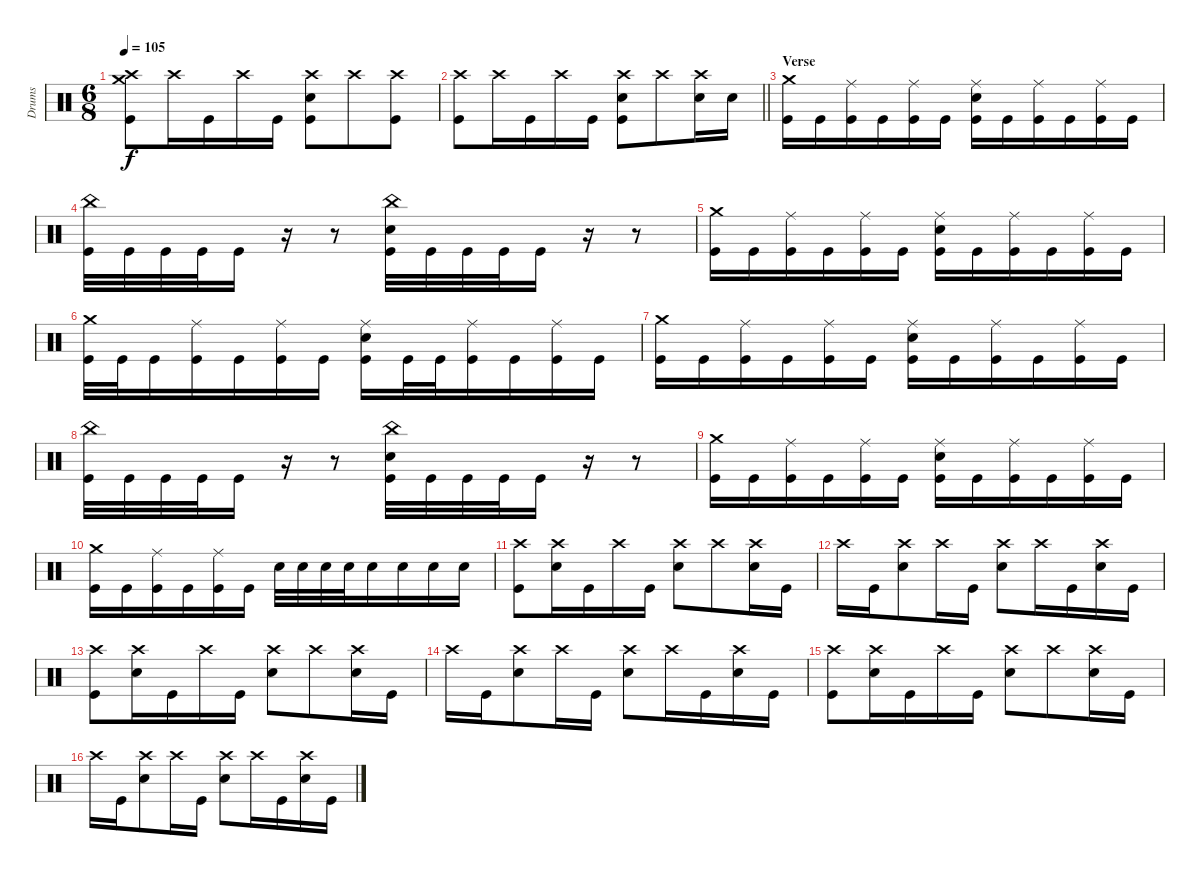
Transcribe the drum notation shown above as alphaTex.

\track ("Drums" "Drums") {instrument percussion}
\staff {score}
\articulation defaults
\ts (6 8)
\tempo 105
\clef neutral
\ks c
("Crash medium (hit)" "Crash high (hit)" "Kick (hit)").8{dy f} "Crash high (hit)".16 "Kick (hit)".16 "Crash high (hit)".16 "Kick (hit)".16 ("Crash high (hit)" "Electric Snare (hit)" "Kick (hit)").8 "Crash high (hit)".8 ("Crash high (hit)" "Kick (hit)").8 |
\barLineRight lightlight
("Crash high (hit)" "Kick (hit)").8 "Crash high (hit)".16 "Kick (hit)".16 "Crash high (hit)".16 "Kick (hit)".16 ("Crash high (hit)" "Electric Snare (hit)" "Kick (hit)").8 "Crash high (hit)".8 ("Crash high (hit)" "Electric Snare (hit)").16 "Electric Snare (hit)".16 |
\section ("" "Verse")
("Crash medium (hit)" "Kick (hit)").16 "Kick (hit)".16 ("Ride (middle)" "Kick (hit)").16 "Kick (hit)".16 ("Ride (middle)" "Kick (hit)").16 "Kick (hit)".16 ("Ride (middle)" "Electric Snare (hit)" "Kick (hit)").16 "Kick (hit)".16 ("Ride (middle)" "Kick (hit)").16 "Kick (hit)".16 ("Ride (middle)" "Kick (hit)").16 "Kick (hit)".16 |
("China (hit)" "Kick (hit)").32 "Kick (hit)".32 "Kick (hit)".32 "Kick (hit)".32 "Kick (hit)".16 r.16 r.8 ("China (hit)" "Electric Snare (hit)" "Kick (hit)").32 "Kick (hit)".32 "Kick (hit)".32 "Kick (hit)".32 "Kick (hit)".16 r.16 r.8 |
("Crash medium (hit)" "Kick (hit)").16 "Kick (hit)".16 ("Ride (middle)" "Kick (hit)").16 "Kick (hit)".16 ("Ride (middle)" "Kick (hit)").16 "Kick (hit)".16 ("Ride (middle)" "Electric Snare (hit)" "Kick (hit)").16 "Kick (hit)".16 ("Ride (middle)" "Kick (hit)").16 "Kick (hit)".16 ("Ride (middle)" "Kick (hit)").16 "Kick (hit)".16 |
("Crash medium (hit)" "Kick (hit)").32 "Kick (hit)".32 "Kick (hit)".16 ("Ride (middle)" "Kick (hit)").16 "Kick (hit)".16 ("Ride (middle)" "Kick (hit)").16 "Kick (hit)".16 ("Ride (middle)" "Electric Snare (hit)" "Kick (hit)").16 "Kick (hit)".32 "Kick (hit)".32 ("Ride (middle)" "Kick (hit)").16 "Kick (hit)".16 ("Ride (middle)" "Kick (hit)").16 "Kick (hit)".16 |
("Crash medium (hit)" "Kick (hit)").16 "Kick (hit)".16 ("Ride (middle)" "Kick (hit)").16 "Kick (hit)".16 ("Ride (middle)" "Kick (hit)").16 "Kick (hit)".16 ("Ride (middle)" "Electric Snare (hit)" "Kick (hit)").16 "Kick (hit)".16 ("Ride (middle)" "Kick (hit)").16 "Kick (hit)".16 ("Ride (middle)" "Kick (hit)").16 "Kick (hit)".16 |
("China (hit)" "Kick (hit)").32 "Kick (hit)".32 "Kick (hit)".32 "Kick (hit)".32 "Kick (hit)".16 r.16 r.8 ("China (hit)" "Electric Snare (hit)" "Kick (hit)").32 "Kick (hit)".32 "Kick (hit)".32 "Kick (hit)".32 "Kick (hit)".16 r.16 r.8 |
("Crash medium (hit)" "Kick (hit)").16 "Kick (hit)".16 ("Ride (middle)" "Kick (hit)").16 "Kick (hit)".16 ("Ride (middle)" "Kick (hit)").16 "Kick (hit)".16 ("Ride (middle)" "Electric Snare (hit)" "Kick (hit)").16 "Kick (hit)".16 ("Ride (middle)" "Kick (hit)").16 "Kick (hit)".16 ("Ride (middle)" "Kick (hit)").16 "Kick (hit)".16 |
("Crash medium (hit)" "Kick (hit)").16 "Kick (hit)".16 ("Ride (middle)" "Kick (hit)").16 "Kick (hit)".16 ("Ride (middle)" "Kick (hit)").16 "Kick (hit)".16 "Electric Snare (hit)".32 "Electric Snare (hit)".32 "Electric Snare (hit)".32 "Electric Snare (hit)".32 "Electric Snare (hit)".16 "Electric Snare (hit)".16 "Electric Snare (hit)".16 "Electric Snare (hit)".16 |
("Crash high (hit)" "Kick (hit)").8 ("Crash high (hit)" "Electric Snare (hit)").16 "Kick (hit)".16 "Crash high (hit)".16 "Kick (hit)".16 ("Crash high (hit)" "Electric Snare (hit)").8 "Crash high (hit)".8 ("Crash high (hit)" "Electric Snare (hit)").16 "Kick (hit)".16 |
"Crash high (hit)".16 "Kick (hit)".16 ("Crash high (hit)" "Electric Snare (hit)").8 "Crash high (hit)".16 "Kick (hit)".16 ("Crash high (hit)" "Electric Snare (hit)").8 "Crash high (hit)".16 "Kick (hit)".16 ("Crash high (hit)" "Electric Snare (hit)").16 "Kick (hit)".16 |
("Crash high (hit)" "Kick (hit)").8 ("Crash high (hit)" "Electric Snare (hit)").16 "Kick (hit)".16 "Crash high (hit)".16 "Kick (hit)".16 ("Crash high (hit)" "Electric Snare (hit)").8 "Crash high (hit)".8 ("Crash high (hit)" "Electric Snare (hit)").16 "Kick (hit)".16 |
"Crash high (hit)".16 "Kick (hit)".16 ("Crash high (hit)" "Electric Snare (hit)").8 "Crash high (hit)".16 "Kick (hit)".16 ("Crash high (hit)" "Electric Snare (hit)").8 "Crash high (hit)".16 "Kick (hit)".16 ("Crash high (hit)" "Electric Snare (hit)").16 "Kick (hit)".16 |
("Crash high (hit)" "Kick (hit)").8 ("Crash high (hit)" "Electric Snare (hit)").16 "Kick (hit)".16 "Crash high (hit)".16 "Kick (hit)".16 ("Crash high (hit)" "Electric Snare (hit)").8 "Crash high (hit)".8 ("Crash high (hit)" "Electric Snare (hit)").16 "Kick (hit)".16 |
"Crash high (hit)".16 "Kick (hit)".16 ("Crash high (hit)" "Electric Snare (hit)").8 "Crash high (hit)".16 "Kick (hit)".16 ("Crash high (hit)" "Electric Snare (hit)").8 "Crash high (hit)".16 "Kick (hit)".16 ("Crash high (hit)" "Electric Snare (hit)").16 "Kick (hit)".16
